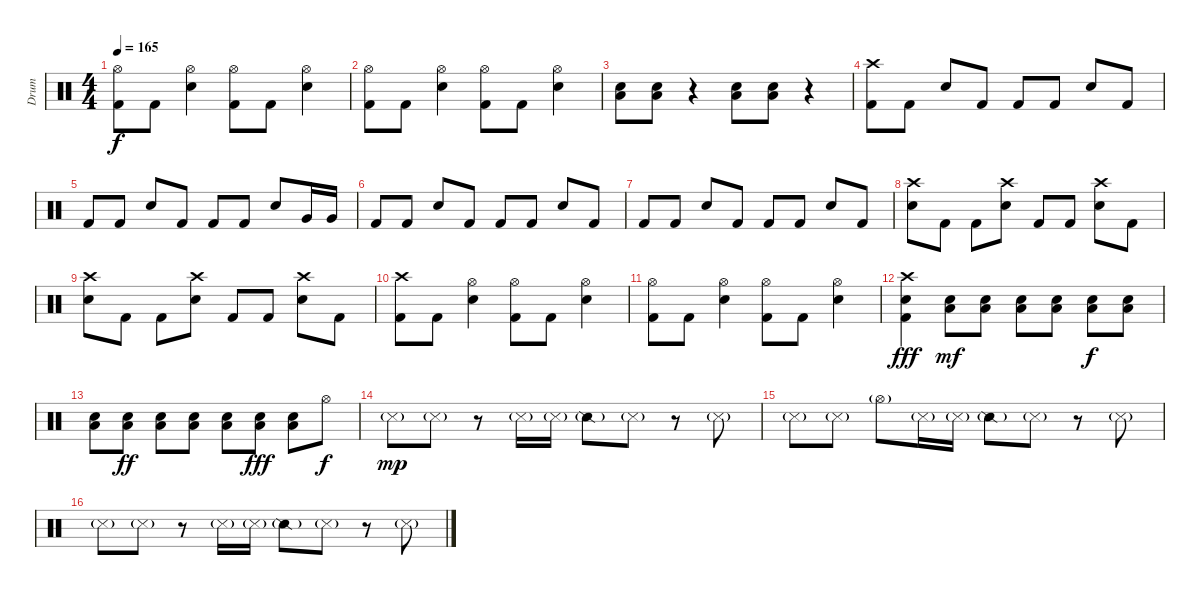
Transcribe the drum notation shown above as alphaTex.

\track ("Drum" "Drum") {instrument percussion}
\staff {score}
\articulation defaults
\ts (4 4)
\tempo 165
\clef neutral
\ks c
("Hi-Hat (open)" "Kick (hit) 2").8{dy f} "Kick (hit) 2".8 ("Hi-Hat (open)" "Electric Snare (hit)").4 ("Hi-Hat (open)" "Kick (hit) 2").8 "Kick (hit) 2".8 ("Hi-Hat (open)" "Electric Snare (hit)").4 |
("Hi-Hat (open)" "Kick (hit) 2").8 "Kick (hit) 2".8 ("Hi-Hat (open)" "Electric Snare (hit)").4 ("Hi-Hat (open)" "Kick (hit) 2").8 "Kick (hit) 2".8 ("Hi-Hat (open)" "Electric Snare (hit)").4 |
("Low Tom (hit)" "Electric Snare (hit)").8 ("Low Tom (hit)" "Electric Snare (hit)").8 r.4 ("Low Tom (hit)" "Electric Snare (hit)").8 ("Low Tom (hit)" "Electric Snare (hit)").8 r.4 |
("Crash high (hit)" "Kick (hit) 2").8 "Kick (hit) 2".8 "Electric Snare (hit)".8 "Kick (hit) 2".8 "Kick (hit) 2".8 "Kick (hit) 2".8 "Electric Snare (hit)".8 "Kick (hit) 2".8 |
"Kick (hit) 2".8 "Kick (hit) 2".8 "Electric Snare (hit)".8 "Kick (hit) 2".8 "Kick (hit) 2".8 "Kick (hit) 2".8 "Electric Snare (hit)".8 "Very Low Tom (hit)".16 "Very Low Tom (hit)".16 |
"Kick (hit) 2".8 "Kick (hit) 2".8 "Electric Snare (hit)".8 "Kick (hit) 2".8 "Kick (hit) 2".8 "Kick (hit) 2".8 "Electric Snare (hit)".8 "Kick (hit) 2".8 |
"Kick (hit) 2".8 "Kick (hit) 2".8 "Electric Snare (hit)".8 "Kick (hit) 2".8 "Kick (hit) 2".8 "Kick (hit) 2".8 "Electric Snare (hit)".8 "Kick (hit) 2".8 |
("Crash high (hit)" "Electric Snare (hit)").8 "Kick (hit) 2".8 "Kick (hit) 2".8 ("Crash high (hit)" "Electric Snare (hit)").8 "Kick (hit) 2".8 "Kick (hit) 2".8 ("Crash high (hit)" "Electric Snare (hit)").8 "Kick (hit) 2".8 |
("Crash high (hit)" "Electric Snare (hit)").8 "Kick (hit) 2".8 "Kick (hit) 2".8 ("Crash high (hit)" "Electric Snare (hit)").8 "Kick (hit) 2".8 "Kick (hit) 2".8 ("Crash high (hit)" "Electric Snare (hit)").8 "Kick (hit) 2".8 |
("Crash high (hit)" "Kick (hit) 2").8 "Kick (hit) 2".8 ("Hi-Hat (open)" "Electric Snare (hit)").4 ("Hi-Hat (open)" "Kick (hit) 2").8 "Kick (hit) 2".8 ("Hi-Hat (open)" "Electric Snare (hit)").4 |
("Hi-Hat (open)" "Kick (hit) 2").8 "Kick (hit) 2".8 ("Hi-Hat (open)" "Electric Snare (hit)").4 ("Hi-Hat (open)" "Kick (hit) 2").8 "Kick (hit) 2".8 ("Hi-Hat (open)" "Electric Snare (hit)").4 |
("Crash high (hit)" "Electric Snare (hit)" "Kick (hit) 2").4{dy fff} ("Low Tom (hit)" "Electric Snare (hit)").8{dy mf} ("Low Tom (hit)" "Electric Snare (hit)").8 ("Low Tom (hit)" "Electric Snare (hit)").8 ("Low Tom (hit)" "Electric Snare (hit)").8 ("Low Tom (hit)" "Electric Snare (hit)").8{dy f} ("Low Tom (hit)" "Electric Snare (hit)").8 |
("Low Tom (hit)" "Electric Snare (hit)").8 ("Low Tom (hit)" "Electric Snare (hit)").8{dy ff} ("Low Tom (hit)" "Electric Snare (hit)").8 ("Low Tom (hit)" "Electric Snare (hit)").8 ("Low Tom (hit)" "Electric Snare (hit)").8 ("Low Tom (hit)" "Electric Snare (hit)").8{dy fff} ("Low Tom (hit)" "Electric Snare (hit)").8 "Hi-Hat (open)".8{dy f} |
"Snare (side stick) 3"{g}.8{dy mp} "Snare (side stick) 3"{g}.8 r.8 "Snare (side stick) 3"{g}.16 "Snare (side stick) 3"{g}.16 "Snare (side stick) 2"{g}.8 "Snare (side stick) 3"{g}.8 r.8 "Snare (side stick) 3"{g}.8 |
"Snare (side stick) 3"{g}.8 "Snare (side stick) 3"{g}.8 "Hi-Hat (open)"{g}.8 "Snare (side stick) 3"{g}.16 "Snare (side stick) 3"{g}.16 "Snare (side stick) 2"{g}.8 "Snare (side stick) 3"{g}.8 r.8 "Snare (side stick) 3"{g}.8 |
"Snare (side stick) 3"{g}.8 "Snare (side stick) 3"{g}.8 r.8 "Snare (side stick) 3"{g}.16 "Snare (side stick) 3"{g}.16 "Snare (side stick) 2"{g}.8 "Snare (side stick) 3"{g}.8 r.8 "Snare (side stick) 3"{g}.8
